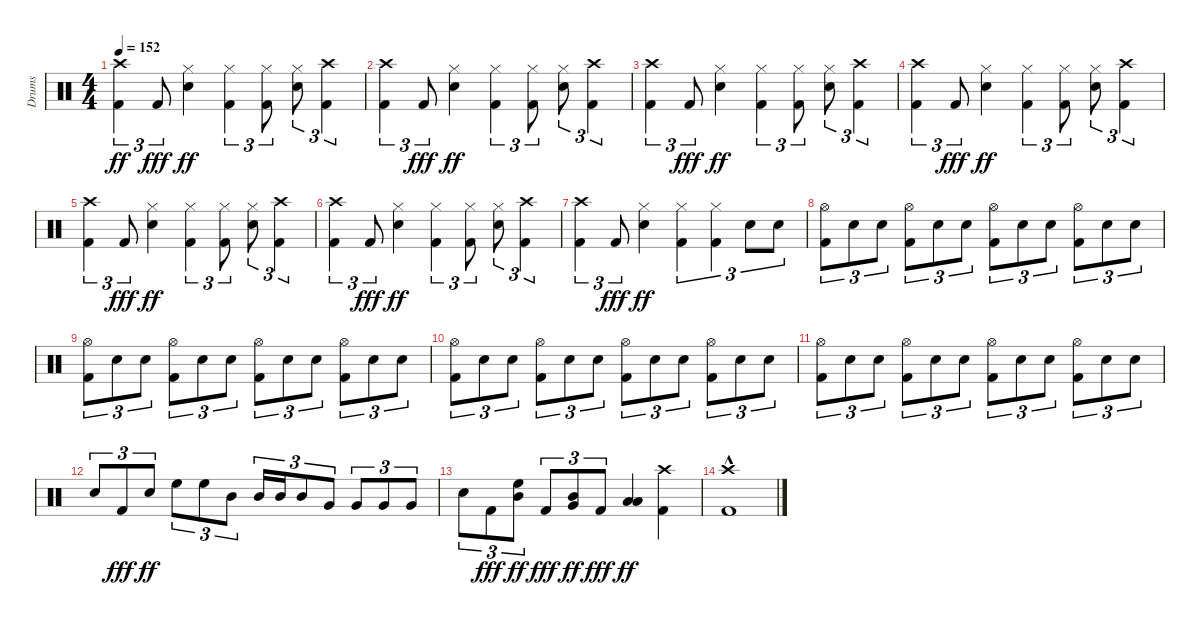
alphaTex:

\track ("Drums" "Drums") {instrument percussion}
\staff {score}
\articulation defaults
\ts (4 4)
\tempo 152
\clef neutral
\ks c
("Kick (hit) 2" "Crash high (hit)").4{tu (3 2) dy ff} "Kick (hit) 2".8{tu (3 2) dy fff} ("Snare (hit) 2" "Hi-Hat (closed)").4{dy ff} ("Kick (hit) 2" "Hi-Hat (closed)").4{tu (3 2)} ("Kick (hit) 2" "Hi-Hat (closed)").8{tu (3 2)} ("Snare (hit) 2" "Hi-Hat (closed)").8{tu (3 2)} ("Kick (hit) 2" "Crash high (hit)").4{tu (3 2)} |
("Kick (hit) 2" "Crash high (hit)").4{tu (3 2)} "Kick (hit) 2".8{tu (3 2) dy fff} ("Snare (hit) 2" "Hi-Hat (closed)").4{dy ff} ("Kick (hit) 2" "Hi-Hat (closed)").4{tu (3 2)} ("Kick (hit) 2" "Hi-Hat (closed)").8{tu (3 2)} ("Snare (hit) 2" "Hi-Hat (closed)").8{tu (3 2)} ("Kick (hit) 2" "Crash high (hit)").4{tu (3 2)} |
("Kick (hit) 2" "Crash high (hit)").4{tu (3 2)} "Kick (hit) 2".8{tu (3 2) dy fff} ("Snare (hit) 2" "Hi-Hat (closed)").4{dy ff} ("Kick (hit) 2" "Hi-Hat (closed)").4{tu (3 2)} ("Kick (hit) 2" "Hi-Hat (closed)").8{tu (3 2)} ("Snare (hit) 2" "Hi-Hat (closed)").8{tu (3 2)} ("Kick (hit) 2" "Crash high (hit)").4{tu (3 2)} |
("Kick (hit) 2" "Crash high (hit)").4{tu (3 2)} "Kick (hit) 2".8{tu (3 2) dy fff} ("Snare (hit) 2" "Hi-Hat (closed)").4{dy ff} ("Kick (hit) 2" "Hi-Hat (closed)").4{tu (3 2)} ("Kick (hit) 2" "Hi-Hat (closed)").8{tu (3 2)} ("Snare (hit) 2" "Hi-Hat (closed)").8{tu (3 2)} ("Kick (hit) 2" "Crash high (hit)").4{tu (3 2)} |
("Kick (hit) 2" "Crash high (hit)").4{tu (3 2)} "Kick (hit) 2".8{tu (3 2) dy fff} ("Snare (hit) 2" "Hi-Hat (closed)").4{dy ff} ("Kick (hit) 2" "Hi-Hat (closed)").4{tu (3 2)} ("Kick (hit) 2" "Hi-Hat (closed)").8{tu (3 2)} ("Snare (hit) 2" "Hi-Hat (closed)").8{tu (3 2)} ("Kick (hit) 2" "Crash high (hit)").4{tu (3 2)} |
("Kick (hit) 2" "Crash high (hit)").4{tu (3 2)} "Kick (hit) 2".8{tu (3 2) dy fff} ("Snare (hit) 2" "Hi-Hat (closed)").4{dy ff} ("Kick (hit) 2" "Hi-Hat (closed)").4{tu (3 2)} ("Kick (hit) 2" "Hi-Hat (closed)").8{tu (3 2)} ("Snare (hit) 2" "Hi-Hat (closed)").8{tu (3 2)} ("Kick (hit) 2" "Crash high (hit)").4{tu (3 2)} |
("Kick (hit) 2" "Crash high (hit)").4{tu (3 2)} "Kick (hit) 2".8{tu (3 2) dy fff} ("Snare (hit) 2" "Hi-Hat (closed)").4{dy ff} ("Kick (hit) 2" "Hi-Hat (closed)").4{tu (3 2)} ("Kick (hit) 2" "Hi-Hat (closed)").4{tu (3 2)} "Snare (hit) 2".8{tu (3 2)} "Snare (hit) 2".8{tu (3 2)} |
("Kick (hit) 2" "Hi-Hat (open)").8{tu (3 2)} "Snare (hit) 2".8{tu (3 2)} "Snare (hit) 2".8{tu (3 2)} ("Kick (hit) 2" "Hi-Hat (open)").8{tu (3 2)} "Snare (hit) 2".8{tu (3 2)} "Snare (hit) 2".8{tu (3 2)} ("Kick (hit) 2" "Hi-Hat (open)").8{tu (3 2)} "Snare (hit) 2".8{tu (3 2)} "Snare (hit) 2".8{tu (3 2)} ("Kick (hit) 2" "Hi-Hat (open)").8{tu (3 2)} "Snare (hit) 2".8{tu (3 2)} "Snare (hit) 2".8{tu (3 2)} |
("Kick (hit) 2" "Hi-Hat (open)").8{tu (3 2)} "Snare (hit) 2".8{tu (3 2)} "Snare (hit) 2".8{tu (3 2)} ("Kick (hit) 2" "Hi-Hat (open)").8{tu (3 2)} "Snare (hit) 2".8{tu (3 2)} "Snare (hit) 2".8{tu (3 2)} ("Kick (hit) 2" "Hi-Hat (open)").8{tu (3 2)} "Snare (hit) 2".8{tu (3 2)} "Snare (hit) 2".8{tu (3 2)} ("Kick (hit) 2" "Hi-Hat (open)").8{tu (3 2)} "Snare (hit) 2".8{tu (3 2)} "Snare (hit) 2".8{tu (3 2)} |
("Kick (hit) 2" "Hi-Hat (open)").8{tu (3 2)} "Snare (hit) 2".8{tu (3 2)} "Snare (hit) 2".8{tu (3 2)} ("Kick (hit) 2" "Hi-Hat (open)").8{tu (3 2)} "Snare (hit) 2".8{tu (3 2)} "Snare (hit) 2".8{tu (3 2)} ("Kick (hit) 2" "Hi-Hat (open)").8{tu (3 2)} "Snare (hit) 2".8{tu (3 2)} "Snare (hit) 2".8{tu (3 2)} ("Kick (hit) 2" "Hi-Hat (open)").8{tu (3 2)} "Snare (hit) 2".8{tu (3 2)} "Snare (hit) 2".8{tu (3 2)} |
("Kick (hit) 2" "Hi-Hat (open)").8{tu (3 2)} "Snare (hit) 2".8{tu (3 2)} "Snare (hit) 2".8{tu (3 2)} ("Kick (hit) 2" "Hi-Hat (open)").8{tu (3 2)} "Snare (hit) 2".8{tu (3 2)} "Snare (hit) 2".8{tu (3 2)} ("Kick (hit) 2" "Hi-Hat (open)").8{tu (3 2)} "Snare (hit) 2".8{tu (3 2)} "Snare (hit) 2".8{tu (3 2)} ("Kick (hit) 2" "Hi-Hat (open)").8{tu (3 2)} "Snare (hit) 2".8{tu (3 2)} "Snare (hit) 2".8{tu (3 2)} |
"Snare (hit) 2".8{tu (3 2)} "Kick (hit) 2".8{tu (3 2) dy fff} "Snare (hit) 2".8{tu (3 2) dy ff} "High Floor Tom (hit)".8{tu (3 2)} "High Floor Tom (hit)".8{tu (3 2)} "Mid Tom (hit)".8{tu (3 2)} "Mid Tom (hit)".16{tu (3 2)} "Mid Tom (hit)".16{tu (3 2)} "Mid Tom (hit)".8{tu (3 2)} "Very Low Tom (hit)".8{tu (3 2)} "Very Low Tom (hit)".8{tu (3 2)} "Very Low Tom (hit)".8{tu (3 2)} "Very Low Tom (hit)".8{tu (3 2)} |
"Snare (hit) 2".8{tu (3 2)} "Kick (hit) 2".8{tu (3 2) dy fff} ("Mid Tom (hit)" "High Floor Tom (hit)").8{tu (3 2) dy ff} "Kick (hit) 2".8{tu (3 2) dy fff} ("Very Low Tom (hit)" "Mid Tom (hit)").8{tu (3 2) dy ff} "Kick (hit) 2".8{tu (3 2) dy fff} ("Low Floor Tom (hit)" "Low Tom (hit)").4{dy ff} ("Kick (hit) 2" "Crash high (hit)").4 |
("Kick (hit) 2"{hac} "Crash high (hit)"{hac}).1
